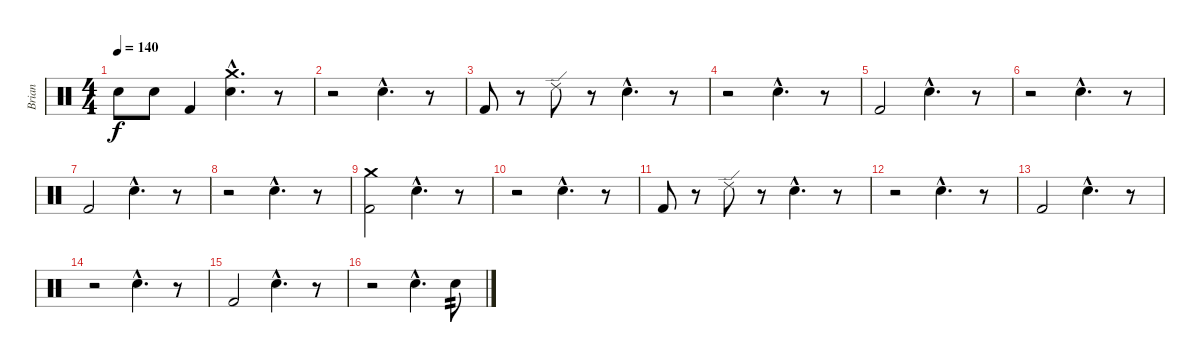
\track ("Brian" "Brian") {instrument percussion}
\staff {score}
\articulation defaults
\ts (4 4)
\tempo 140
\clef neutral
\ks c "Electric Snare (hit)".8{dy f} "Electric Snare (hit)".8 "Kick (hit) 2".4
("Crash medium (hit)"{hac} "Electric Snare (hit)"{hac}).4{d} r.8 |
r.2 "Electric Snare (hit)"{hac}.4{d} r.8 |
"Kick (hit) 2".8 r.8 "Ride (edge) 2".8 r.8 "Electric Snare (hit)"{hac}.4{d} r.8 |
r.2 "Electric Snare (hit)"{hac}.4{d} r.8 |
"Kick (hit) 2".2 "Electric Snare (hit)"{hac}.4{d} r.8 |
r.2 "Electric Snare (hit)"{hac}.4{d} r.8 |
"Kick (hit) 2".2 "Electric Snare (hit)"{hac}.4{d} r.8 |
r.2 "Electric Snare (hit)"{hac}.4{d} r.8 |
("Crash medium (hit)" "Kick (hit) 2").2 "Electric Snare (hit)"{hac}.4{d} r.8 |
r.2 "Electric Snare (hit)"{hac}.4{d} r.8 |
"Kick (hit) 2".8 r.8 "Ride (edge) 2".8 r.8 "Electric Snare (hit)"{hac}.4{d} r.8 |
r.2 "Electric Snare (hit)"{hac}.4{d} r.8 |
"Kick (hit) 2".2 "Electric Snare (hit)"{hac}.4{d} r.8 |
r.2 "Electric Snare (hit)"{hac}.4{d} r.8 |
"Kick (hit) 2".2 "Electric Snare (hit)"{hac}.4{d} r.8 |
r.2 "Electric Snare (hit)"{hac}.4{d} "Electric Snare (hit)".8{tp 2}
